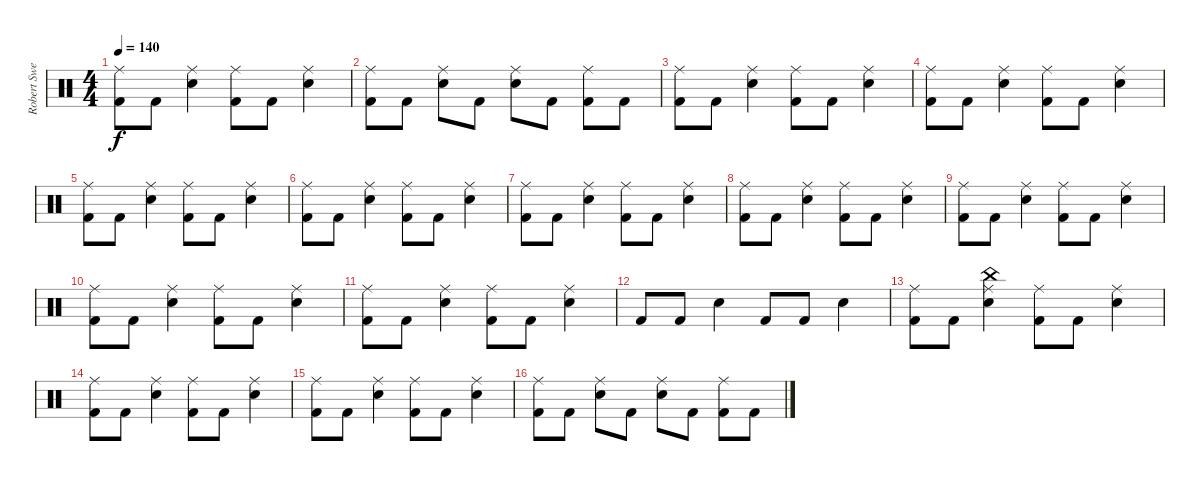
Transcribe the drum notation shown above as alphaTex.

\track ("Robert Sweet" "Robert Swe") {instrument percussion}
\staff {score}
\articulation defaults
\ts (4 4)
\tempo 140
\clef neutral
\ks c
("Kick (hit) 2" "Ride (middle)").8{dy f} "Kick (hit) 2".8 ("Electric Snare (hit)" "Ride (middle)").4 ("Kick (hit) 2" "Ride (middle)").8 "Kick (hit) 2".8 ("Electric Snare (hit)" "Ride (middle)").4 |
("Kick (hit) 2" "Ride (middle)").8 "Kick (hit) 2".8 ("Electric Snare (hit)" "Ride (middle)").8 "Kick (hit) 2".8 ("Electric Snare (hit)" "Ride (middle)").8 "Kick (hit) 2".8 ("Kick (hit) 2" "Ride (middle)").8 "Kick (hit) 2".8 |
("Kick (hit) 2" "Ride (middle)").8 "Kick (hit) 2".8 ("Electric Snare (hit)" "Ride (middle)").4 ("Kick (hit) 2" "Ride (middle)").8 "Kick (hit) 2".8 ("Electric Snare (hit)" "Ride (middle)").4 |
("Kick (hit) 2" "Ride (middle)").8 "Kick (hit) 2".8 ("Electric Snare (hit)" "Ride (middle)").4 ("Kick (hit) 2" "Ride (middle)").8 "Kick (hit) 2".8 ("Electric Snare (hit)" "Ride (middle)").4 |
("Kick (hit) 2" "Ride (middle)").8 "Kick (hit) 2".8 ("Electric Snare (hit)" "Ride (middle)").4 ("Kick (hit) 2" "Ride (middle)").8 "Kick (hit) 2".8 ("Electric Snare (hit)" "Ride (middle)").4 |
("Kick (hit) 2" "Ride (middle)").8 "Kick (hit) 2".8 ("Electric Snare (hit)" "Ride (middle)").4 ("Kick (hit) 2" "Ride (middle)").8 "Kick (hit) 2".8 ("Electric Snare (hit)" "Ride (middle)").4 |
("Kick (hit) 2" "Ride (middle)").8 "Kick (hit) 2".8 ("Electric Snare (hit)" "Ride (middle)").4 ("Kick (hit) 2" "Ride (middle)").8 "Kick (hit) 2".8 ("Electric Snare (hit)" "Ride (middle)").4 |
("Kick (hit) 2" "Ride (middle)").8 "Kick (hit) 2".8 ("Electric Snare (hit)" "Ride (middle)").4 ("Kick (hit) 2" "Ride (middle)").8 "Kick (hit) 2".8 ("Electric Snare (hit)" "Ride (middle)").4 |
("Kick (hit) 2" "Ride (middle)").8 "Kick (hit) 2".8 ("Electric Snare (hit)" "Ride (middle)").4 ("Kick (hit) 2" "Ride (middle)").8 "Kick (hit) 2".8 ("Electric Snare (hit)" "Ride (middle)").4 |
("Kick (hit) 2" "Ride (middle)").8 "Kick (hit) 2".8 ("Electric Snare (hit)" "Ride (middle)").4 ("Kick (hit) 2" "Ride (middle)").8 "Kick (hit) 2".8 ("Electric Snare (hit)" "Ride (middle)").4 |
("Kick (hit) 2" "Ride (middle)").8 "Kick (hit) 2".8 ("Electric Snare (hit)" "Ride (middle)").4 ("Kick (hit) 2" "Ride (middle)").8 "Kick (hit) 2".8 ("Electric Snare (hit)" "Ride (middle)").4 |
"Kick (hit) 2".8 "Kick (hit) 2".8 "Electric Snare (hit)".4 "Kick (hit) 2".8 "Kick (hit) 2".8 "Electric Snare (hit)".4 |
("Kick (hit) 2" "Ride (middle)").8 "Kick (hit) 2".8 ("Electric Snare (hit)" "China (hit)" "Ride (middle)").4 ("Kick (hit) 2" "Ride (middle)").8 "Kick (hit) 2".8 ("Electric Snare (hit)" "Ride (middle)").4 |
("Kick (hit) 2" "Ride (middle)").8 "Kick (hit) 2".8 ("Electric Snare (hit)" "Ride (middle)").4 ("Kick (hit) 2" "Ride (middle)").8 "Kick (hit) 2".8 ("Electric Snare (hit)" "Ride (middle)").4 |
("Kick (hit) 2" "Ride (middle)").8 "Kick (hit) 2".8 ("Electric Snare (hit)" "Ride (middle)").4 ("Kick (hit) 2" "Ride (middle)").8 "Kick (hit) 2".8 ("Electric Snare (hit)" "Ride (middle)").4 |
("Kick (hit) 2" "Ride (middle)").8 "Kick (hit) 2".8 ("Electric Snare (hit)" "Ride (middle)").8 "Kick (hit) 2".8 ("Electric Snare (hit)" "Ride (middle)").8 "Kick (hit) 2".8 ("Kick (hit) 2" "Ride (middle)").8 "Kick (hit) 2".8
